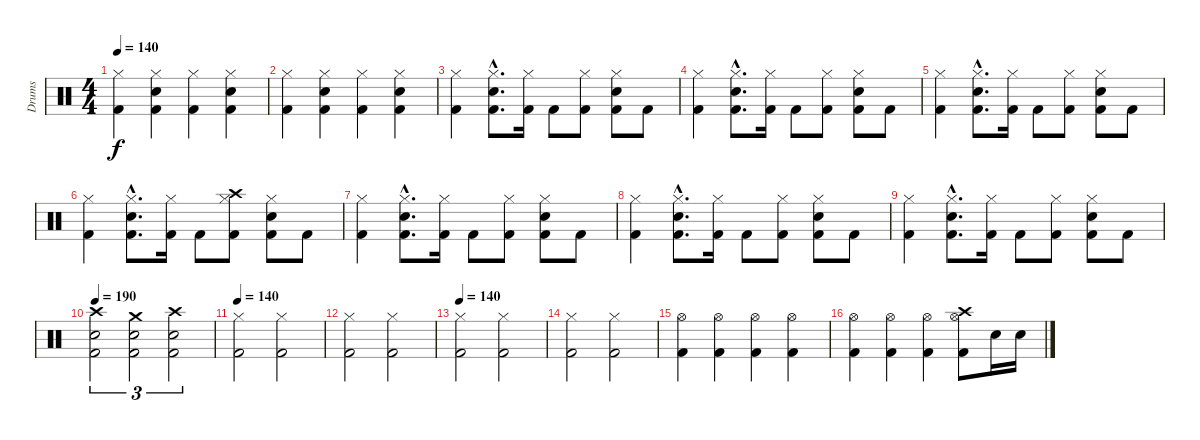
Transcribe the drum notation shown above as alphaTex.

\track ("Drums" "Drums") {instrument percussion}
\staff {score}
\articulation defaults
\ts (4 4)
\tempo 140
\clef neutral
\ks c
("Hi-Hat (closed)" "Kick (hit) 2").4{dy f} ("Hi-Hat (closed)" "Electric Snare (hit)" "Kick (hit) 2").4 ("Hi-Hat (closed)" "Kick (hit) 2").4 ("Hi-Hat (closed)" "Electric Snare (hit)" "Kick (hit) 2").4 |
("Hi-Hat (closed)" "Kick (hit) 2").4 ("Hi-Hat (closed)" "Electric Snare (hit)" "Kick (hit) 2").4 ("Hi-Hat (closed)" "Kick (hit) 2").4 ("Hi-Hat (closed)" "Electric Snare (hit)" "Kick (hit) 2").4 |
("Hi-Hat (closed)" "Kick (hit) 2").4 ("Hi-Hat (closed)"{hac} "Electric Snare (hit)"{hac} "Kick (hit) 2"{hac}).8{d} ("Hi-Hat (closed)" "Kick (hit) 2").16 "Kick (hit) 2".8 ("Hi-Hat (closed)" "Kick (hit) 2").8 ("Hi-Hat (closed)" "Electric Snare (hit)" "Kick (hit) 2").8 "Kick (hit) 2".8 |
("Hi-Hat (closed)" "Kick (hit) 2").4 ("Hi-Hat (closed)"{hac} "Electric Snare (hit)"{hac} "Kick (hit) 2"{hac}).8{d} ("Hi-Hat (closed)" "Kick (hit) 2").16 "Kick (hit) 2".8 ("Hi-Hat (closed)" "Kick (hit) 2").8 ("Hi-Hat (closed)" "Electric Snare (hit)" "Kick (hit) 2").8 "Kick (hit) 2".8 |
("Hi-Hat (closed)" "Kick (hit) 2").4 ("Hi-Hat (closed)"{hac} "Electric Snare (hit)"{hac} "Kick (hit) 2"{hac}).8{d} ("Hi-Hat (closed)" "Kick (hit) 2").16 "Kick (hit) 2".8 ("Hi-Hat (closed)" "Kick (hit) 2").8 ("Hi-Hat (closed)" "Electric Snare (hit)" "Kick (hit) 2").8 "Kick (hit) 2".8 |
("Hi-Hat (closed)" "Kick (hit) 2").4 ("Hi-Hat (closed)"{hac} "Electric Snare (hit)"{hac} "Kick (hit) 2"{hac}).8{d} ("Hi-Hat (closed)" "Kick (hit) 2").16 "Kick (hit) 2".8 ("Hi-Hat (closed)" "Crash high (hit)" "Kick (hit) 2").8 ("Hi-Hat (closed)" "Electric Snare (hit)" "Kick (hit) 2").8 "Kick (hit) 2".8 |
("Hi-Hat (closed)" "Kick (hit) 2").4 ("Hi-Hat (closed)"{hac} "Electric Snare (hit)"{hac} "Kick (hit) 2"{hac}).8{d} ("Hi-Hat (closed)" "Kick (hit) 2").16 "Kick (hit) 2".8 ("Hi-Hat (closed)" "Kick (hit) 2").8 ("Hi-Hat (closed)" "Electric Snare (hit)" "Kick (hit) 2").8 "Kick (hit) 2".8 |
("Hi-Hat (closed)" "Kick (hit) 2").4 ("Hi-Hat (closed)"{hac} "Electric Snare (hit)"{hac} "Kick (hit) 2"{hac}).8{d} ("Hi-Hat (closed)" "Kick (hit) 2").16 "Kick (hit) 2".8 ("Hi-Hat (closed)" "Kick (hit) 2").8 ("Hi-Hat (closed)" "Electric Snare (hit)" "Kick (hit) 2").8 "Kick (hit) 2".8 |
("Hi-Hat (closed)" "Kick (hit) 2").4 ("Hi-Hat (closed)"{hac} "Electric Snare (hit)"{hac} "Kick (hit) 2"{hac}).8{d} ("Hi-Hat (closed)" "Kick (hit) 2").16 "Kick (hit) 2".8 ("Hi-Hat (closed)" "Kick (hit) 2").8 ("Hi-Hat (closed)" "Electric Snare (hit)" "Kick (hit) 2").8 "Kick (hit) 2".8 |
\tempo 190
("Crash high (hit)" "Electric Snare (hit)" "Kick (hit) 2").2{tu (3 2)} ("Crash medium (hit)" "Electric Snare (hit)" "Kick (hit) 2").2{tu (3 2)} ("Crash high (hit)" "Electric Snare (hit)" "Kick (hit) 2").2{tu (3 2)} |
\tempo 140
("Hi-Hat (closed)" "Kick (hit) 2").2 ("Hi-Hat (closed)" "Kick (hit) 2").2 |
("Hi-Hat (closed)" "Kick (hit) 2").2 ("Hi-Hat (closed)" "Kick (hit) 2").2 |
\tempo 140
("Hi-Hat (closed)" "Kick (hit) 2").2 ("Hi-Hat (closed)" "Kick (hit) 2").2 |
("Hi-Hat (closed)" "Kick (hit) 2").2 ("Hi-Hat (closed)" "Kick (hit) 2").2 |
("Hi-Hat (open)" "Kick (hit) 2").4 ("Hi-Hat (open)" "Kick (hit) 2").4 ("Hi-Hat (open)" "Kick (hit) 2").4 ("Hi-Hat (open)" "Kick (hit) 2").4 |
("Hi-Hat (open)" "Kick (hit) 2").4 ("Hi-Hat (open)" "Kick (hit) 2").4 ("Hi-Hat (open)" "Kick (hit) 2").4 ("Crash high (hit)" "Hi-Hat (open)" "Kick (hit) 2").8 "Electric Snare (hit)".16 "Electric Snare (hit)".16
